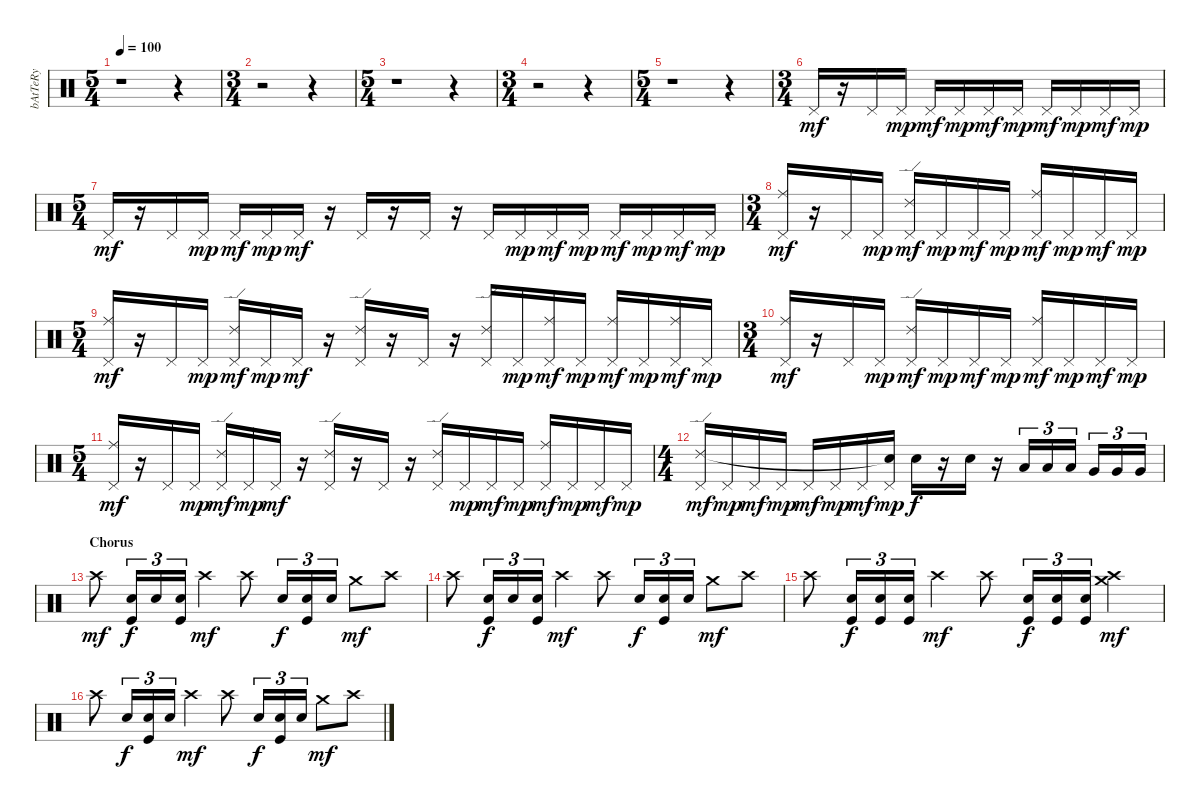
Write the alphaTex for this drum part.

\track ("bAtTeRy" "bAtTeRy") {instrument percussion}
\staff {score}
\articulation defaults
\ts (5 4)
\tempo 100
\clef neutral
\ks c
r.1{dy f} r.4 |
\ts (3 4)
r.2 r.4 |
\ts (5 4)
r.1 r.4 |
\ts (3 4)
r.2 r.4 |
\ts (5 4)
r.1 r.4 |
\ts (3 4)
"Pedal Hi-Hat (hit)".16{dy mf} r.16 "Pedal Hi-Hat (hit)".16 "Pedal Hi-Hat (hit)".16{dy mp} "Pedal Hi-Hat (hit)".16{dy mf} "Pedal Hi-Hat (hit)".16{dy mp} "Pedal Hi-Hat (hit)".16{dy mf} "Pedal Hi-Hat (hit)".16{dy mp} "Pedal Hi-Hat (hit)".16{dy mf} "Pedal Hi-Hat (hit)".16{dy mp} "Pedal Hi-Hat (hit)".16{dy mf} "Pedal Hi-Hat (hit)".16{dy mp} |
\ts (5 4)
"Pedal Hi-Hat (hit)".16{dy mf} r.16 "Pedal Hi-Hat (hit)".16 "Pedal Hi-Hat (hit)".16{dy mp} "Pedal Hi-Hat (hit)".16{dy mf} "Pedal Hi-Hat (hit)".16{dy mp} "Pedal Hi-Hat (hit)".16{dy mf} r.16 "Pedal Hi-Hat (hit)".16 r.16 "Pedal Hi-Hat (hit)".16 r.16 "Pedal Hi-Hat (hit)".16 "Pedal Hi-Hat (hit)".16{dy mp} "Pedal Hi-Hat (hit)".16{dy mf} "Pedal Hi-Hat (hit)".16{dy mp} "Pedal Hi-Hat (hit)".16{dy mf} "Pedal Hi-Hat (hit)".16{dy mp} "Pedal Hi-Hat (hit)".16{dy mf} "Pedal Hi-Hat (hit)".16{dy mp} |
\ts (3 4)
("Pedal Hi-Hat (hit)" "Ride (middle)").16{dy mf} r.16 "Pedal Hi-Hat (hit)".16 "Pedal Hi-Hat (hit)".16{dy mp} ("Pedal Hi-Hat (hit)" "Ride (edge) 2").16{dy mf} "Pedal Hi-Hat (hit)".16{dy mp} "Pedal Hi-Hat (hit)".16{dy mf} "Pedal Hi-Hat (hit)".16{dy mp} ("Pedal Hi-Hat (hit)" "Ride (middle)").16{dy mf} "Pedal Hi-Hat (hit)".16{dy mp} "Pedal Hi-Hat (hit)".16{dy mf} "Pedal Hi-Hat (hit)".16{dy mp} |
\ts (5 4)
("Pedal Hi-Hat (hit)" "Ride (middle)").16{dy mf} r.16 "Pedal Hi-Hat (hit)".16 "Pedal Hi-Hat (hit)".16{dy mp} ("Pedal Hi-Hat (hit)" "Ride (edge) 2").16{dy mf} "Pedal Hi-Hat (hit)".16{dy mp} "Pedal Hi-Hat (hit)".16{dy mf} r.16 ("Pedal Hi-Hat (hit)" "Ride (edge) 2").16 r.16 "Pedal Hi-Hat (hit)".16 r.16 ("Pedal Hi-Hat (hit)" "Ride (edge) 2").16 "Pedal Hi-Hat (hit)".16{dy mp} ("Pedal Hi-Hat (hit)" "Ride (middle)").16{dy mf} "Pedal Hi-Hat (hit)".16{dy mp} ("Pedal Hi-Hat (hit)" "Ride (middle)").16{dy mf} "Pedal Hi-Hat (hit)".16{dy mp} ("Pedal Hi-Hat (hit)" "Ride (middle)").16{dy mf} "Pedal Hi-Hat (hit)".16{dy mp} |
\ts (3 4)
("Pedal Hi-Hat (hit)" "Ride (middle)").16{dy mf} r.16 "Pedal Hi-Hat (hit)".16 "Pedal Hi-Hat (hit)".16{dy mp} ("Pedal Hi-Hat (hit)" "Ride (edge) 2").16{dy mf} "Pedal Hi-Hat (hit)".16{dy mp} "Pedal Hi-Hat (hit)".16{dy mf} "Pedal Hi-Hat (hit)".16{dy mp} ("Pedal Hi-Hat (hit)" "Ride (middle)").16{dy mf} "Pedal Hi-Hat (hit)".16{dy mp} "Pedal Hi-Hat (hit)".16{dy mf} "Pedal Hi-Hat (hit)".16{dy mp} |
\ts (5 4)
("Pedal Hi-Hat (hit)" "Ride (middle)").16{dy mf} r.16 "Pedal Hi-Hat (hit)".16 "Pedal Hi-Hat (hit)".16{dy mp} ("Pedal Hi-Hat (hit)" "Ride (edge) 2").16{dy mf} "Pedal Hi-Hat (hit)".16{dy mp} "Pedal Hi-Hat (hit)".16{dy mf} r.16 ("Pedal Hi-Hat (hit)" "Ride (edge) 2").16 r.16 "Pedal Hi-Hat (hit)".16 r.16 ("Pedal Hi-Hat (hit)" "Ride (edge) 2").16 "Pedal Hi-Hat (hit)".16{dy mp} "Pedal Hi-Hat (hit)".16{dy mf} "Pedal Hi-Hat (hit)".16{dy mp} ("Pedal Hi-Hat (hit)" "Ride (middle)").16{dy mf} "Pedal Hi-Hat (hit)".16{dy mp} "Pedal Hi-Hat (hit)".16{dy mf} "Pedal Hi-Hat (hit)".16{dy mp} |
\ts (4 4)
("Pedal Hi-Hat (hit)" "Ride (edge) 2").16{dy mf} "Pedal Hi-Hat (hit)".16{dy mp} "Pedal Hi-Hat (hit)".16{dy mf} "Pedal Hi-Hat (hit)".16{dy mp} "Pedal Hi-Hat (hit)".16{dy mf} "Pedal Hi-Hat (hit)".16{dy mp} "Pedal Hi-Hat (hit)".16{dy mf} ("Pedal Hi-Hat (hit)" "Snare (hit)"{t}).16{dy mp} "Electric Snare (hit)".16{dy f} r.16 "Electric Snare (hit)".16 r.16 "Low Tom (hit)".16{tu (3 2)} "Low Tom (hit)".16{tu (3 2)} "Low Tom (hit)".16{tu (3 2)} "Very Low Tom (hit)".16{tu (3 2)} "Very Low Tom (hit)".16{tu (3 2)} "Very Low Tom (hit)".16{tu (3 2)} |
\section ("" "Chorus")
"Crash high (hit)".8{dy mf} ("Electric Snare (hit)" "Kick (hit)").16{tu (3 2) dy f} "Electric Snare (hit)".16{tu (3 2)} ("Electric Snare (hit)" "Kick (hit)").16{tu (3 2)} "Crash high (hit)".4{dy mf} "Crash high (hit)".8 "Electric Snare (hit)".16{tu (3 2) dy f} ("Electric Snare (hit)" "Kick (hit)").16{tu (3 2)} "Electric Snare (hit)".16{tu (3 2)} "Crash medium (hit)".8{dy mf} "Crash high (hit)".8 |
"Crash high (hit)".8 ("Electric Snare (hit)" "Kick (hit)").16{tu (3 2) dy f} "Electric Snare (hit)".16{tu (3 2)} ("Electric Snare (hit)" "Kick (hit)").16{tu (3 2)} "Crash high (hit)".4{dy mf} "Crash high (hit)".8 "Electric Snare (hit)".16{tu (3 2) dy f} ("Electric Snare (hit)" "Kick (hit)").16{tu (3 2)} "Electric Snare (hit)".16{tu (3 2)} "Crash medium (hit)".8{dy mf} "Crash high (hit)".8 |
"Crash high (hit)".8 ("Snare (hit) 2" "Kick (hit)").16{tu (3 2) dy f} ("Snare (hit) 2" "Kick (hit)").16{tu (3 2)} ("Snare (hit) 2" "Kick (hit)").16{tu (3 2)} "Crash high (hit)".4{dy mf} "Crash high (hit)".8 ("Snare (hit) 2" "Kick (hit)").16{tu (3 2) dy f} ("Snare (hit) 2" "Kick (hit)").16{tu (3 2)} ("Snare (hit) 2" "Kick (hit)").16{tu (3 2)} ("Crash medium (hit)" "Crash high (hit)").4{dy mf} |
"Crash high (hit)".8 "Snare (hit) 2".16{tu (3 2) dy f} ("Snare (hit) 2" "Kick (hit)").16{tu (3 2)} "Snare (hit) 2".16{tu (3 2)} "Crash high (hit)".4{dy mf} "Crash high (hit)".8 "Snare (hit) 2".16{tu (3 2) dy f} ("Snare (hit) 2" "Kick (hit)").16{tu (3 2)} "Snare (hit) 2".16{tu (3 2)} "Crash medium (hit)".8{dy mf} "Crash high (hit)".8
